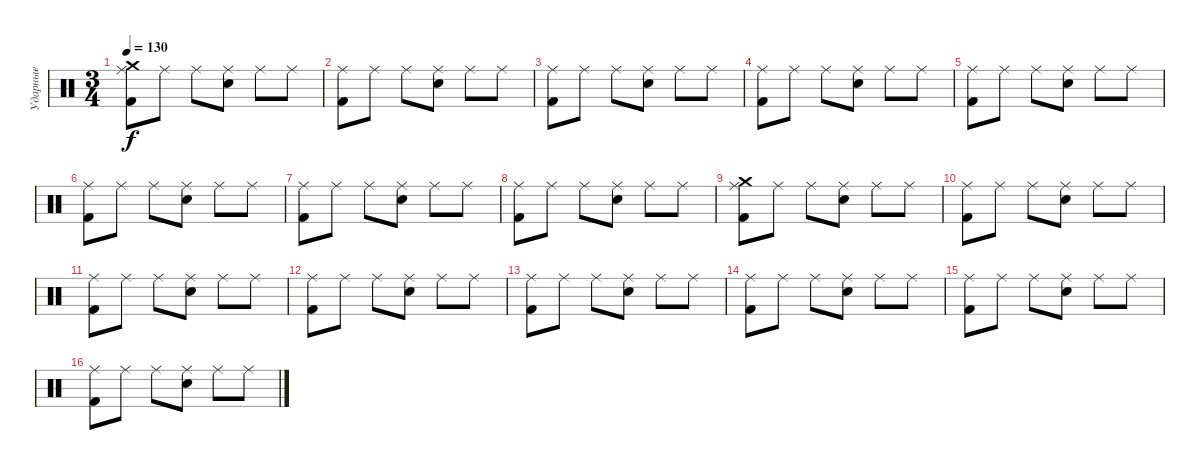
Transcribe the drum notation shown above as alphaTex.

\track ("Ударные" "Ударные") {instrument percussion}
\staff {score}
\articulation defaults
\ts (3 4)
\tempo 130
\clef neutral
\ks c
("Ride (middle)" "Crash medium (hit)" "Kick (hit) 2").8{dy f} "Ride (middle)".8 "Ride (middle)".8 ("Ride (middle)" "Snare (hit) 2").8 "Ride (middle)".8 "Ride (middle)".8 |
("Ride (middle)" "Kick (hit) 2").8 "Ride (middle)".8 "Ride (middle)".8 ("Ride (middle)" "Snare (hit) 2").8 "Ride (middle)".8 "Ride (middle)".8 |
("Ride (middle)" "Kick (hit) 2").8 "Ride (middle)".8 "Ride (middle)".8 ("Ride (middle)" "Snare (hit) 2").8 "Ride (middle)".8 "Ride (middle)".8 |
("Ride (middle)" "Kick (hit) 2").8 "Ride (middle)".8 "Ride (middle)".8 ("Ride (middle)" "Snare (hit) 2").8 "Ride (middle)".8 "Ride (middle)".8 |
("Ride (middle)" "Kick (hit) 2").8 "Ride (middle)".8 "Ride (middle)".8 ("Ride (middle)" "Snare (hit) 2").8 "Ride (middle)".8 "Ride (middle)".8 |
("Ride (middle)" "Kick (hit) 2").8 "Ride (middle)".8 "Ride (middle)".8 ("Ride (middle)" "Snare (hit) 2").8 "Ride (middle)".8 "Ride (middle)".8 |
("Ride (middle)" "Kick (hit) 2").8 "Ride (middle)".8 "Ride (middle)".8 ("Ride (middle)" "Snare (hit) 2").8 "Ride (middle)".8 "Ride (middle)".8 |
("Ride (middle)" "Kick (hit) 2").8 "Ride (middle)".8 "Ride (middle)".8 ("Ride (middle)" "Snare (hit) 2").8 "Ride (middle)".8 "Ride (middle)".8 |
("Ride (middle)" "Crash medium (hit)" "Kick (hit) 2").8 "Ride (middle)".8 "Ride (middle)".8 ("Ride (middle)" "Snare (hit) 2").8 "Ride (middle)".8 "Ride (middle)".8 |
("Ride (middle)" "Kick (hit) 2").8 "Ride (middle)".8 "Ride (middle)".8 ("Ride (middle)" "Snare (hit) 2").8 "Ride (middle)".8 "Ride (middle)".8 |
("Ride (middle)" "Kick (hit) 2").8 "Ride (middle)".8 "Ride (middle)".8 ("Ride (middle)" "Snare (hit) 2").8 "Ride (middle)".8 "Ride (middle)".8 |
("Ride (middle)" "Kick (hit) 2").8 "Ride (middle)".8 "Ride (middle)".8 ("Ride (middle)" "Snare (hit) 2").8 "Ride (middle)".8 "Ride (middle)".8 |
("Ride (middle)" "Kick (hit) 2").8 "Ride (middle)".8 "Ride (middle)".8 ("Ride (middle)" "Snare (hit) 2").8 "Ride (middle)".8 "Ride (middle)".8 |
("Ride (middle)" "Kick (hit) 2").8 "Ride (middle)".8 "Ride (middle)".8 ("Ride (middle)" "Snare (hit) 2").8 "Ride (middle)".8 "Ride (middle)".8 |
("Ride (middle)" "Kick (hit) 2").8 "Ride (middle)".8 "Ride (middle)".8 ("Ride (middle)" "Snare (hit) 2").8 "Ride (middle)".8 "Ride (middle)".8 |
("Ride (middle)" "Kick (hit) 2").8 "Ride (middle)".8 "Ride (middle)".8 ("Ride (middle)" "Snare (hit) 2").8 "Ride (middle)".8 "Ride (middle)".8
